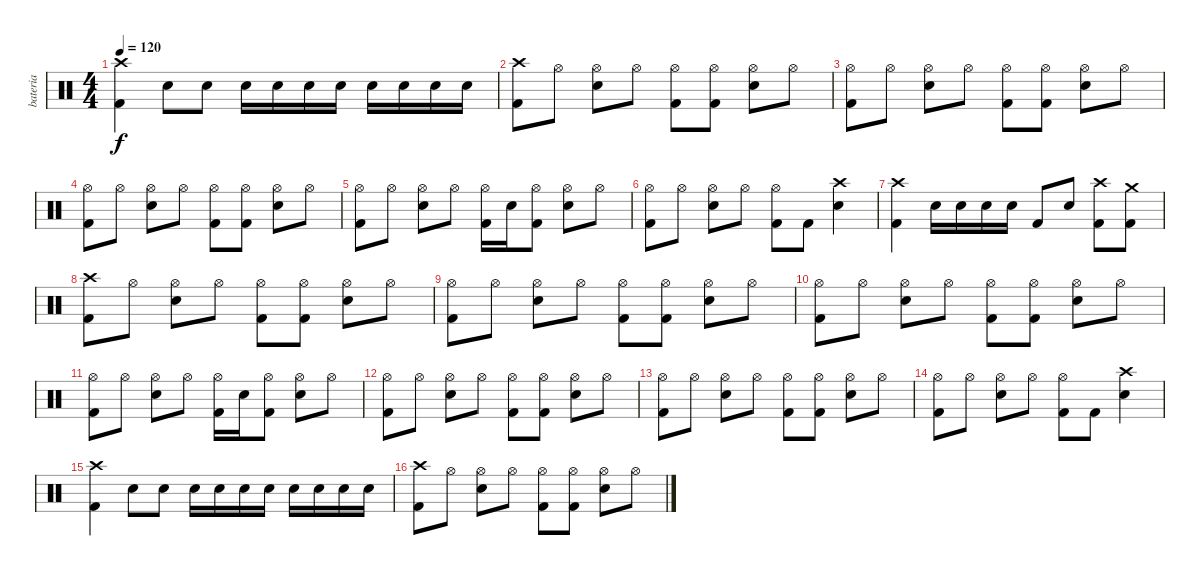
\track ("bateria" "bateria") {instrument percussion}
\staff {score}
\articulation defaults
\ts (4 4)
\tempo 120
\clef neutral
\ks c
("Crash high (hit)" "Kick (hit) 2").4{dy f} "Electric Snare (hit)".8 "Electric Snare (hit)".8 "Electric Snare (hit)".16 "Electric Snare (hit)".16 "Electric Snare (hit)".16 "Electric Snare (hit)".16 "Electric Snare (hit)".16 "Electric Snare (hit)".16 "Electric Snare (hit)".16 "Electric Snare (hit)".16 |
("Crash high (hit)" "Kick (hit) 2").8 "Hi-Hat (open)".8 ("Electric Snare (hit)" "Hi-Hat (open)").8 "Hi-Hat (open)".8 ("Kick (hit) 2" "Hi-Hat (open)").8 ("Kick (hit) 2" "Hi-Hat (open)").8 ("Electric Snare (hit)" "Hi-Hat (open)").8 "Hi-Hat (open)".8 |
("Kick (hit) 2" "Hi-Hat (open)").8 "Hi-Hat (open)".8 ("Electric Snare (hit)" "Hi-Hat (open)").8 "Hi-Hat (open)".8 ("Kick (hit) 2" "Hi-Hat (open)").8 ("Kick (hit) 2" "Hi-Hat (open)").8 ("Electric Snare (hit)" "Hi-Hat (open)").8 "Hi-Hat (open)".8 |
("Kick (hit) 2" "Hi-Hat (open)").8 "Hi-Hat (open)".8 ("Electric Snare (hit)" "Hi-Hat (open)").8 "Hi-Hat (open)".8 ("Kick (hit) 2" "Hi-Hat (open)").8 ("Kick (hit) 2" "Hi-Hat (open)").8 ("Electric Snare (hit)" "Hi-Hat (open)").8 "Hi-Hat (open)".8 |
("Kick (hit) 2" "Hi-Hat (open)").8 "Hi-Hat (open)".8 ("Electric Snare (hit)" "Hi-Hat (open)").8 "Hi-Hat (open)".8 ("Kick (hit) 2" "Hi-Hat (open)").16 "Electric Snare (hit)".16 ("Kick (hit) 2" "Hi-Hat (open)").8 ("Electric Snare (hit)" "Hi-Hat (open)").8 "Hi-Hat (open)".8 |
("Kick (hit) 2" "Hi-Hat (open)").8 "Hi-Hat (open)".8 ("Electric Snare (hit)" "Hi-Hat (open)").8 "Hi-Hat (open)".8 ("Kick (hit) 2" "Hi-Hat (open)").8 "Kick (hit) 2".8 ("Crash high (hit)" "Electric Snare (hit)").4 |
("Crash high (hit)" "Kick (hit) 2").4 "Electric Snare (hit)".16 "Electric Snare (hit)".16 "Electric Snare (hit)".16 "Electric Snare (hit)".16 "Kick (hit) 2".8 "Electric Snare (hit)".8 ("Crash high (hit)" "Kick (hit) 2").8 ("Crash medium (hit)" "Kick (hit) 2").8 |
("Crash high (hit)" "Kick (hit) 2").8 "Hi-Hat (open)".8 ("Electric Snare (hit)" "Hi-Hat (open)").8 "Hi-Hat (open)".8 ("Kick (hit) 2" "Hi-Hat (open)").8 ("Kick (hit) 2" "Hi-Hat (open)").8 ("Electric Snare (hit)" "Hi-Hat (open)").8 "Hi-Hat (open)".8 |
("Kick (hit) 2" "Hi-Hat (open)").8 "Hi-Hat (open)".8 ("Electric Snare (hit)" "Hi-Hat (open)").8 "Hi-Hat (open)".8 ("Kick (hit) 2" "Hi-Hat (open)").8 ("Kick (hit) 2" "Hi-Hat (open)").8 ("Electric Snare (hit)" "Hi-Hat (open)").8 "Hi-Hat (open)".8 |
("Kick (hit) 2" "Hi-Hat (open)").8 "Hi-Hat (open)".8 ("Electric Snare (hit)" "Hi-Hat (open)").8 "Hi-Hat (open)".8 ("Kick (hit) 2" "Hi-Hat (open)").8 ("Kick (hit) 2" "Hi-Hat (open)").8 ("Electric Snare (hit)" "Hi-Hat (open)").8 "Hi-Hat (open)".8 |
("Kick (hit) 2" "Hi-Hat (open)").8 "Hi-Hat (open)".8 ("Electric Snare (hit)" "Hi-Hat (open)").8 "Hi-Hat (open)".8 ("Kick (hit) 2" "Hi-Hat (open)").16 "Electric Snare (hit)".16 ("Kick (hit) 2" "Hi-Hat (open)").8 ("Electric Snare (hit)" "Hi-Hat (open)").8 "Hi-Hat (open)".8 |
("Kick (hit) 2" "Hi-Hat (open)").8 "Hi-Hat (open)".8 ("Electric Snare (hit)" "Hi-Hat (open)").8 "Hi-Hat (open)".8 ("Kick (hit) 2" "Hi-Hat (open)").8 ("Kick (hit) 2" "Hi-Hat (open)").8 ("Electric Snare (hit)" "Hi-Hat (open)").8 "Hi-Hat (open)".8 |
("Kick (hit) 2" "Hi-Hat (open)").8 "Hi-Hat (open)".8 ("Electric Snare (hit)" "Hi-Hat (open)").8 "Hi-Hat (open)".8 ("Kick (hit) 2" "Hi-Hat (open)").8 ("Kick (hit) 2" "Hi-Hat (open)").8 ("Electric Snare (hit)" "Hi-Hat (open)").8 "Hi-Hat (open)".8 |
("Kick (hit) 2" "Hi-Hat (open)").8 "Hi-Hat (open)".8 ("Electric Snare (hit)" "Hi-Hat (open)").8 "Hi-Hat (open)".8 ("Kick (hit) 2" "Hi-Hat (open)").8 "Kick (hit) 2".8 ("Crash high (hit)" "Electric Snare (hit)").4 |
("Crash high (hit)" "Kick (hit) 2").4 "Electric Snare (hit)".8 "Electric Snare (hit)".8 "Electric Snare (hit)".16 "Electric Snare (hit)".16 "Electric Snare (hit)".16 "Electric Snare (hit)".16 "Electric Snare (hit)".16 "Electric Snare (hit)".16 "Electric Snare (hit)".16 "Electric Snare (hit)".16 |
("Crash high (hit)" "Kick (hit) 2").8 "Hi-Hat (open)".8 ("Electric Snare (hit)" "Hi-Hat (open)").8 "Hi-Hat (open)".8 ("Kick (hit) 2" "Hi-Hat (open)").8 ("Kick (hit) 2" "Hi-Hat (open)").8 ("Electric Snare (hit)" "Hi-Hat (open)").8 "Hi-Hat (open)".8
